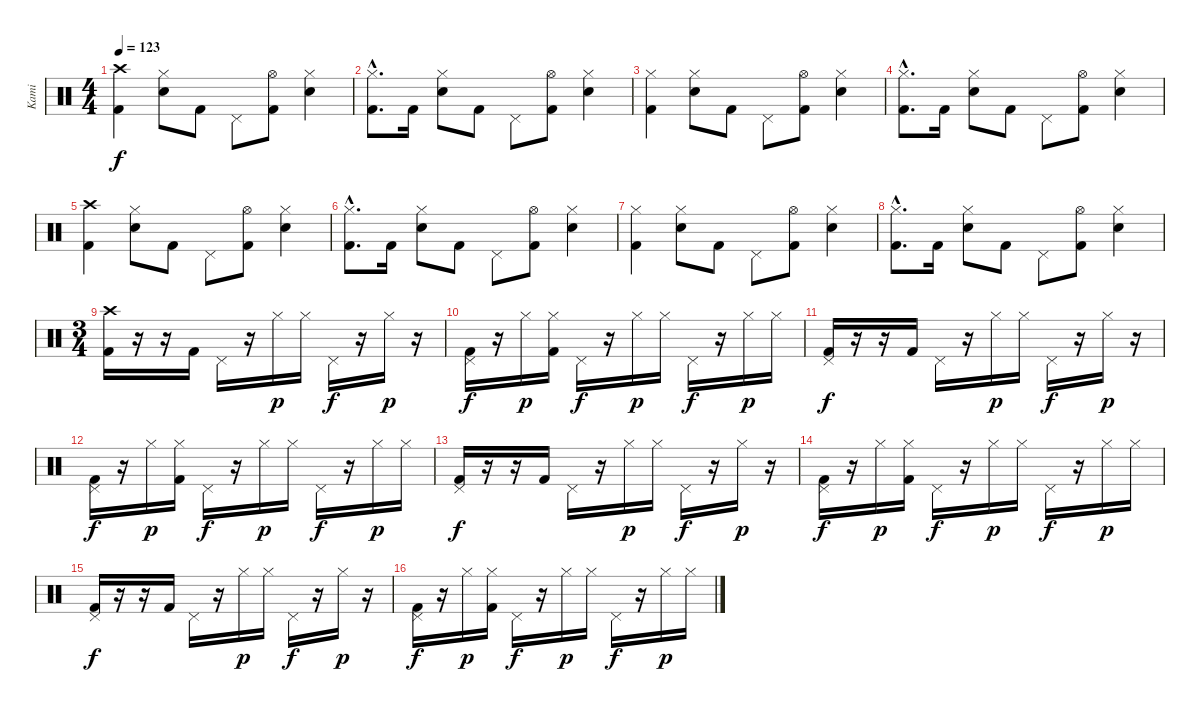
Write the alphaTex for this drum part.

\track ("Kami" "Kami") {instrument percussion}
\staff {score}
\articulation defaults
\ts (4 4)
\tempo 123
\clef neutral
\ks c
("Kick (hit) 2" "Crash high (hit)").4{dy f} ("Electric Snare (hit)" "Hi-Hat (closed)").8 "Kick (hit) 2".8 "Pedal Hi-Hat (hit)".8 ("Kick (hit) 2" "Hi-Hat (open)").8 ("Electric Snare (hit)" "Hi-Hat (closed)").4 |
("Kick (hit) 2"{hac} "Hi-Hat (closed)"{hac}).8{d} "Kick (hit) 2".16 ("Electric Snare (hit)" "Hi-Hat (closed)").8 "Kick (hit) 2".8 "Pedal Hi-Hat (hit)".8 ("Kick (hit) 2" "Hi-Hat (open)").8 ("Electric Snare (hit)" "Hi-Hat (closed)").4 |
("Kick (hit) 2" "Hi-Hat (closed)").4 ("Electric Snare (hit)" "Hi-Hat (closed)").8 "Kick (hit) 2".8 "Pedal Hi-Hat (hit)".8 ("Kick (hit) 2" "Hi-Hat (open)").8 ("Electric Snare (hit)" "Hi-Hat (closed)").4 |
("Kick (hit) 2"{hac} "Hi-Hat (closed)"{hac}).8{d} "Kick (hit) 2".16 ("Electric Snare (hit)" "Hi-Hat (closed)").8 "Kick (hit) 2".8 "Pedal Hi-Hat (hit)".8 ("Kick (hit) 2" "Hi-Hat (open)").8 ("Electric Snare (hit)" "Hi-Hat (closed)").4 |
("Kick (hit) 2" "Crash high (hit)").4 ("Electric Snare (hit)" "Hi-Hat (closed)").8 "Kick (hit) 2".8 "Pedal Hi-Hat (hit)".8 ("Kick (hit) 2" "Hi-Hat (open)").8 ("Electric Snare (hit)" "Hi-Hat (closed)").4 |
("Kick (hit) 2"{hac} "Hi-Hat (closed)"{hac}).8{d} "Kick (hit) 2".16 ("Electric Snare (hit)" "Hi-Hat (closed)").8 "Kick (hit) 2".8 "Pedal Hi-Hat (hit)".8 ("Kick (hit) 2" "Hi-Hat (open)").8 ("Electric Snare (hit)" "Hi-Hat (closed)").4 |
("Kick (hit) 2" "Hi-Hat (closed)").4 ("Electric Snare (hit)" "Hi-Hat (closed)").8 "Kick (hit) 2".8 "Pedal Hi-Hat (hit)".8 ("Kick (hit) 2" "Hi-Hat (open)").8 ("Electric Snare (hit)" "Hi-Hat (closed)").4 |
("Kick (hit) 2"{hac} "Hi-Hat (closed)"{hac}).8{d} "Kick (hit) 2".16 ("Electric Snare (hit)" "Hi-Hat (closed)").8 "Kick (hit) 2".8 "Pedal Hi-Hat (hit)".8 ("Kick (hit) 2" "Hi-Hat (open)").8 ("Electric Snare (hit)" "Hi-Hat (closed)").4 |
\ts (3 4)
("Kick (hit) 2" "Crash high (hit)").16 r.16 r.16 "Kick (hit) 2".16 "Pedal Hi-Hat (hit)".16 r.16 "Hi-Hat (closed)".16{dy p} "Hi-Hat (closed)".16 "Pedal Hi-Hat (hit)".16{dy f} r.16 "Hi-Hat (closed)".16{dy p} r.16 |
("Kick (hit) 2" "Pedal Hi-Hat (hit)").16{dy f} r.16 "Hi-Hat (closed)".16{dy p} ("Kick (hit) 2" "Hi-Hat (closed)").16 "Pedal Hi-Hat (hit)".16{dy f} r.16 "Hi-Hat (closed)".16{dy p} "Hi-Hat (closed)".16 "Pedal Hi-Hat (hit)".16{dy f} r.16 "Hi-Hat (closed)".16{dy p} "Hi-Hat (closed)".16 |
("Kick (hit) 2" "Pedal Hi-Hat (hit)").16{dy f} r.16 r.16 "Kick (hit) 2".16 "Pedal Hi-Hat (hit)".16 r.16 "Hi-Hat (closed)".16{dy p} "Hi-Hat (closed)".16 "Pedal Hi-Hat (hit)".16{dy f} r.16 "Hi-Hat (closed)".16{dy p} r.16 |
("Kick (hit) 2" "Pedal Hi-Hat (hit)").16{dy f} r.16 "Hi-Hat (closed)".16{dy p} ("Kick (hit) 2" "Hi-Hat (closed)").16 "Pedal Hi-Hat (hit)".16{dy f} r.16 "Hi-Hat (closed)".16{dy p} "Hi-Hat (closed)".16 "Pedal Hi-Hat (hit)".16{dy f} r.16 "Hi-Hat (closed)".16{dy p} "Hi-Hat (closed)".16 |
("Kick (hit) 2" "Pedal Hi-Hat (hit)").16{dy f} r.16 r.16 "Kick (hit) 2".16 "Pedal Hi-Hat (hit)".16 r.16 "Hi-Hat (closed)".16{dy p} "Hi-Hat (closed)".16 "Pedal Hi-Hat (hit)".16{dy f} r.16 "Hi-Hat (closed)".16{dy p} r.16 |
("Kick (hit) 2" "Pedal Hi-Hat (hit)").16{dy f} r.16 "Hi-Hat (closed)".16{dy p} ("Kick (hit) 2" "Hi-Hat (closed)").16 "Pedal Hi-Hat (hit)".16{dy f} r.16 "Hi-Hat (closed)".16{dy p} "Hi-Hat (closed)".16 "Pedal Hi-Hat (hit)".16{dy f} r.16 "Hi-Hat (closed)".16{dy p} "Hi-Hat (closed)".16 |
("Kick (hit) 2" "Pedal Hi-Hat (hit)").16{dy f} r.16 r.16 "Kick (hit) 2".16 "Pedal Hi-Hat (hit)".16 r.16 "Hi-Hat (closed)".16{dy p} "Hi-Hat (closed)".16 "Pedal Hi-Hat (hit)".16{dy f} r.16 "Hi-Hat (closed)".16{dy p} r.16 |
("Kick (hit) 2" "Pedal Hi-Hat (hit)").16{dy f} r.16 "Hi-Hat (closed)".16{dy p} ("Kick (hit) 2" "Hi-Hat (closed)").16 "Pedal Hi-Hat (hit)".16{dy f} r.16 "Hi-Hat (closed)".16{dy p} "Hi-Hat (closed)".16 "Pedal Hi-Hat (hit)".16{dy f} r.16 "Hi-Hat (closed)".16{dy p} "Hi-Hat (closed)".16
